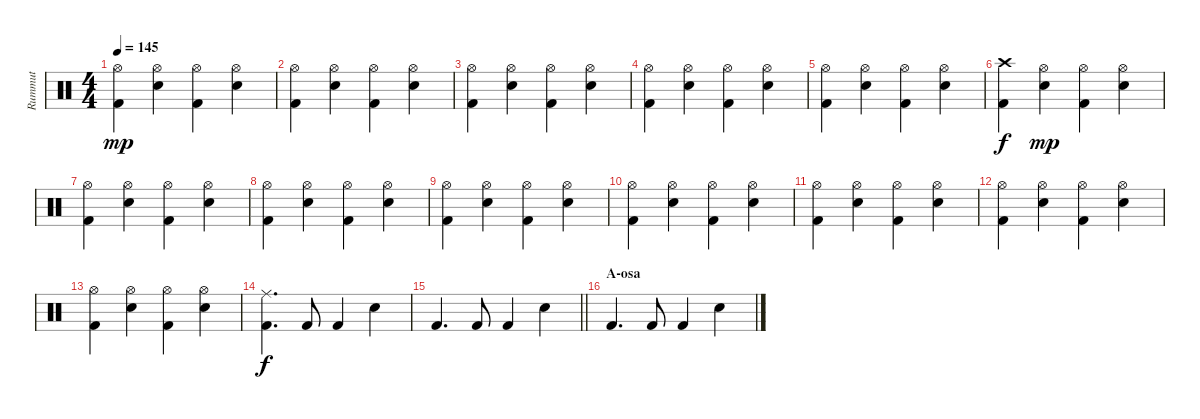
\track ("Rummut" "Rummut") {instrument percussion}
\staff {score}
\articulation defaults
\ts (4 4)
\tempo 145
\clef neutral
\ks c
("Hi-Hat (open)" "Kick (hit) 2").4{dy mp} ("Hi-Hat (open)" "Snare (hit) 2").4 ("Hi-Hat (open)" "Kick (hit) 2").4 ("Hi-Hat (open)" "Snare (hit) 2").4 |
("Hi-Hat (open)" "Kick (hit) 2").4 ("Hi-Hat (open)" "Snare (hit) 2").4 ("Hi-Hat (open)" "Kick (hit) 2").4 ("Hi-Hat (open)" "Snare (hit) 2").4 |
("Hi-Hat (open)" "Kick (hit) 2").4 ("Hi-Hat (open)" "Snare (hit) 2").4 ("Hi-Hat (open)" "Kick (hit) 2").4 ("Hi-Hat (open)" "Snare (hit) 2").4 |
("Hi-Hat (open)" "Kick (hit) 2").4 ("Hi-Hat (open)" "Snare (hit) 2").4 ("Hi-Hat (open)" "Kick (hit) 2").4 ("Hi-Hat (open)" "Snare (hit) 2").4 |
("Hi-Hat (open)" "Kick (hit) 2").4 ("Hi-Hat (open)" "Snare (hit) 2").4 ("Hi-Hat (open)" "Kick (hit) 2").4 ("Hi-Hat (open)" "Snare (hit) 2").4 |
("Crash high (hit)" "Kick (hit) 2").4{dy f} ("Hi-Hat (open)" "Snare (hit) 2").4{dy mp} ("Hi-Hat (open)" "Kick (hit) 2").4 ("Hi-Hat (open)" "Snare (hit) 2").4 |
("Hi-Hat (open)" "Kick (hit) 2").4 ("Hi-Hat (open)" "Snare (hit) 2").4 ("Hi-Hat (open)" "Kick (hit) 2").4 ("Hi-Hat (open)" "Snare (hit) 2").4 |
("Hi-Hat (open)" "Kick (hit) 2").4 ("Hi-Hat (open)" "Snare (hit) 2").4 ("Hi-Hat (open)" "Kick (hit) 2").4 ("Hi-Hat (open)" "Snare (hit) 2").4 |
("Hi-Hat (open)" "Kick (hit) 2").4 ("Hi-Hat (open)" "Snare (hit) 2").4 ("Hi-Hat (open)" "Kick (hit) 2").4 ("Hi-Hat (open)" "Snare (hit) 2").4 |
("Hi-Hat (open)" "Kick (hit) 2").4 ("Hi-Hat (open)" "Snare (hit) 2").4 ("Hi-Hat (open)" "Kick (hit) 2").4 ("Hi-Hat (open)" "Snare (hit) 2").4 |
("Hi-Hat (open)" "Kick (hit) 2").4 ("Hi-Hat (open)" "Snare (hit) 2").4 ("Hi-Hat (open)" "Kick (hit) 2").4 ("Hi-Hat (open)" "Snare (hit) 2").4 |
("Hi-Hat (open)" "Kick (hit) 2").4 ("Hi-Hat (open)" "Snare (hit) 2").4 ("Hi-Hat (open)" "Kick (hit) 2").4 ("Hi-Hat (open)" "Snare (hit) 2").4 |
("Hi-Hat (open)" "Kick (hit) 2").4 ("Hi-Hat (open)" "Snare (hit) 2").4 ("Hi-Hat (open)" "Kick (hit) 2").4 ("Hi-Hat (open)" "Snare (hit) 2").4 |
("Ride (middle)" "Kick (hit) 2").4{d dy f} "Kick (hit) 2".8 "Kick (hit) 2".4 "Snare (hit) 2".4 |
\barLineRight lightlight "Kick (hit) 2".4{d} "Kick (hit) 2".8 "Kick (hit) 2".4 "Snare (hit) 2".4
|
\section ("" "A-osa")
"Kick (hit) 2".4{d} "Kick (hit) 2".8 "Kick (hit) 2".4 "Snare (hit) 2".4
